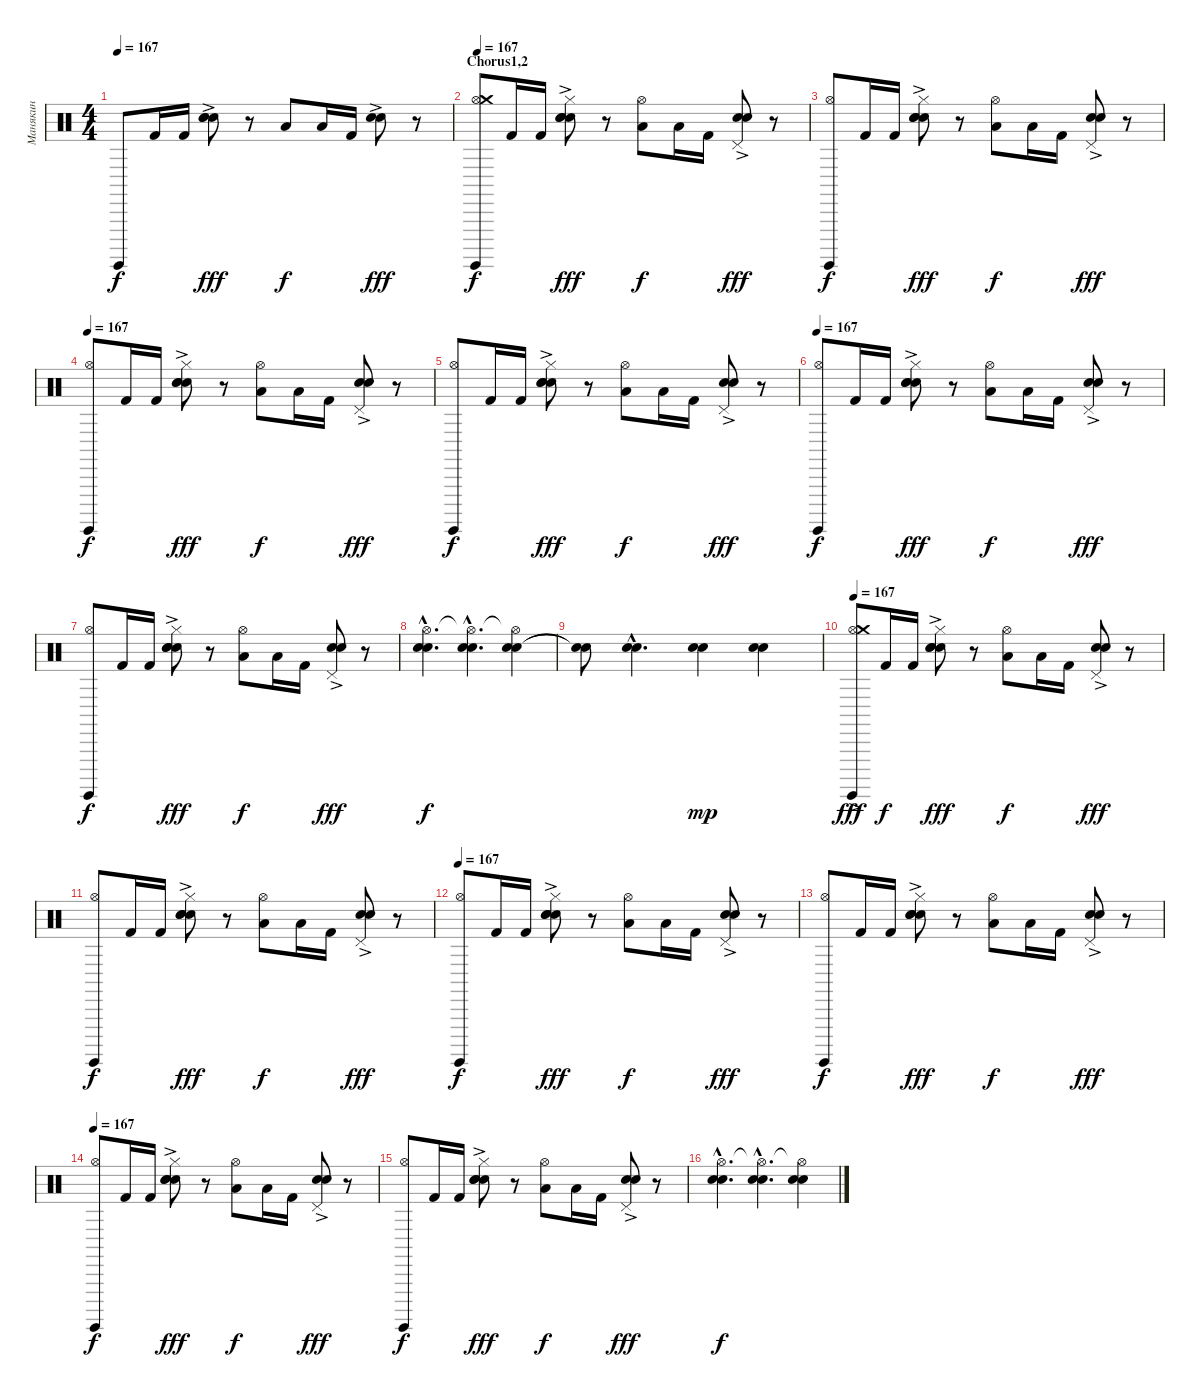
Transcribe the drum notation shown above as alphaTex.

\track ("Манякин" "Манякин") {instrument percussion}
\staff {score}
\articulation defaults
\ts (4 4)
\tempo 167
\clef neutral
\ks c "Surdo (hit)".8{dy f} "Kick (hit) 2".16 "Kick (hit) 2".16
("Electric Snare (hit)"{ac} "Snare (hit) 2" "Electric Snare (hit)").8{dy fff} r.8 "Low Tom (hit)".8{dy f} "Low Tom (hit)".16 "Kick (hit) 2".16 ("Electric Snare (hit)"{ac} "Snare (hit) 2").8{dy fff} r.8 |
\section ("" "Chorus1,2")
\tempo 167
("Surdo (hit)" "Hi-Hat (open)" "Crash medium (hit)").8{dy f volume 15} "Kick (hit) 2".16 "Kick (hit) 2".16 ("Hi-Hat (closed)" "Electric Snare (hit)"{ac} "Snare (hit) 2" "Electric Snare (hit)").8{dy fff} r.8 ("Low Tom (hit)" "Hi-Hat (open)").8{dy f} "Low Tom (hit)".16 "Kick (hit) 2".16 ("Electric Snare (hit)"{ac} "Snare (hit) 2" "Pedal Hi-Hat (hit)").8{dy fff} r.8 |
("Surdo (hit)" "Hi-Hat (open)").8{dy f} "Kick (hit) 2".16 "Kick (hit) 2".16 ("Hi-Hat (closed)" "Electric Snare (hit)"{ac} "Snare (hit) 2" "Electric Snare (hit)").8{dy fff} r.8 ("Low Tom (hit)" "Hi-Hat (open)").8{dy f} "Low Tom (hit)".16 "Kick (hit) 2".16 ("Electric Snare (hit)"{ac} "Snare (hit) 2" "Pedal Hi-Hat (hit)").8{dy fff} r.8 |
\tempo 167
("Surdo (hit)" "Hi-Hat (open)").8{dy f} "Kick (hit) 2".16 "Kick (hit) 2".16 ("Hi-Hat (closed)" "Electric Snare (hit)"{ac} "Snare (hit) 2" "Electric Snare (hit)").8{dy fff} r.8 ("Low Tom (hit)" "Hi-Hat (open)").8{dy f} "Low Tom (hit)".16 "Kick (hit) 2".16 ("Electric Snare (hit)"{ac} "Snare (hit) 2" "Pedal Hi-Hat (hit)").8{dy fff} r.8 |
("Surdo (hit)" "Hi-Hat (open)").8{dy f} "Kick (hit) 2".16 "Kick (hit) 2".16 ("Hi-Hat (closed)" "Electric Snare (hit)"{ac} "Snare (hit) 2" "Electric Snare (hit)").8{dy fff} r.8 ("Low Tom (hit)" "Hi-Hat (open)").8{dy f} "Low Tom (hit)".16 "Kick (hit) 2".16 ("Electric Snare (hit)"{ac} "Snare (hit) 2" "Pedal Hi-Hat (hit)").8{dy fff} r.8 |
\tempo 167
("Surdo (hit)" "Hi-Hat (open)").8{dy f} "Kick (hit) 2".16 "Kick (hit) 2".16 ("Hi-Hat (closed)" "Electric Snare (hit)"{ac} "Snare (hit) 2" "Electric Snare (hit)").8{dy fff} r.8 ("Low Tom (hit)" "Hi-Hat (open)").8{dy f} "Low Tom (hit)".16 "Kick (hit) 2".16 ("Electric Snare (hit)"{ac} "Snare (hit) 2" "Pedal Hi-Hat (hit)").8{dy fff} r.8 |
("Surdo (hit)" "Hi-Hat (open)").8{dy f} "Kick (hit) 2".16 "Kick (hit) 2".16 ("Hi-Hat (closed)" "Electric Snare (hit)"{ac} "Snare (hit) 2" "Electric Snare (hit)").8{dy fff} r.8 ("Low Tom (hit)" "Hi-Hat (open)").8{dy f} "Low Tom (hit)".16 "Kick (hit) 2".16 ("Electric Snare (hit)"{ac} "Snare (hit) 2" "Pedal Hi-Hat (hit)").8{dy fff} r.8 |
("Electric Snare (hit)"{hac} "Snare (hit) 2"{hac} "Hi-Hat (open)"{hac}).4{d dy f} ("Electric Snare (hit)"{hac} "Snare (hit) 2"{hac} "Hi-Hat (open)"{hac t}).4{d} ("Electric Snare (hit)" "Snare (hit) 2" "Hi-Hat (open)"{t}).4 |
("Snare (hit)"{t} "Snare (hit)"{t}).8 ("Electric Snare (hit)"{hac} "Snare (hit) 2"{hac}).4{d} ("Electric Snare (hit)" "Snare (hit) 2").4{dy mp} ("Snare (hit) 2" "Electric Snare (hit)").4 |
\tempo 167
("Surdo (hit)" "Hi-Hat (open)" "Crash medium (hit)"{ac}).8{dy fff volume 15} "Kick (hit) 2".16{dy f} "Kick (hit) 2".16 ("Hi-Hat (closed)" "Electric Snare (hit)"{ac} "Snare (hit) 2" "Electric Snare (hit)").8{dy fff} r.8 ("Low Tom (hit)" "Hi-Hat (open)").8{dy f} "Low Tom (hit)".16 "Kick (hit) 2".16 ("Electric Snare (hit)"{ac} "Snare (hit) 2" "Pedal Hi-Hat (hit)").8{dy fff} r.8 |
("Surdo (hit)" "Hi-Hat (open)").8{dy f} "Kick (hit) 2".16 "Kick (hit) 2".16 ("Hi-Hat (closed)" "Electric Snare (hit)"{ac} "Snare (hit) 2" "Electric Snare (hit)").8{dy fff} r.8 ("Low Tom (hit)" "Hi-Hat (open)").8{dy f} "Low Tom (hit)".16 "Kick (hit) 2".16 ("Electric Snare (hit)"{ac} "Snare (hit) 2" "Pedal Hi-Hat (hit)").8{dy fff} r.8 |
\tempo 167
("Surdo (hit)" "Hi-Hat (open)").8{dy f} "Kick (hit) 2".16 "Kick (hit) 2".16 ("Hi-Hat (closed)" "Electric Snare (hit)"{ac} "Snare (hit) 2" "Electric Snare (hit)").8{dy fff} r.8 ("Low Tom (hit)" "Hi-Hat (open)").8{dy f} "Low Tom (hit)".16 "Kick (hit) 2".16 ("Electric Snare (hit)"{ac} "Snare (hit) 2" "Pedal Hi-Hat (hit)").8{dy fff} r.8 |
("Surdo (hit)" "Hi-Hat (open)").8{dy f} "Kick (hit) 2".16 "Kick (hit) 2".16 ("Hi-Hat (closed)" "Electric Snare (hit)"{ac} "Snare (hit) 2" "Electric Snare (hit)").8{dy fff} r.8 ("Low Tom (hit)" "Hi-Hat (open)").8{dy f} "Low Tom (hit)".16 "Kick (hit) 2".16 ("Electric Snare (hit)"{ac} "Snare (hit) 2" "Pedal Hi-Hat (hit)").8{dy fff} r.8 |
\tempo 167
("Surdo (hit)" "Hi-Hat (open)").8{dy f} "Kick (hit) 2".16 "Kick (hit) 2".16 ("Hi-Hat (closed)" "Electric Snare (hit)"{ac} "Snare (hit) 2" "Electric Snare (hit)").8{dy fff} r.8 ("Low Tom (hit)" "Hi-Hat (open)").8{dy f} "Low Tom (hit)".16 "Kick (hit) 2".16 ("Electric Snare (hit)"{ac} "Snare (hit) 2" "Pedal Hi-Hat (hit)").8{dy fff} r.8 |
("Surdo (hit)" "Hi-Hat (open)").8{dy f} "Kick (hit) 2".16 "Kick (hit) 2".16 ("Hi-Hat (closed)" "Electric Snare (hit)"{ac} "Snare (hit) 2" "Electric Snare (hit)").8{dy fff} r.8 ("Low Tom (hit)" "Hi-Hat (open)").8{dy f} "Low Tom (hit)".16 "Kick (hit) 2".16 ("Electric Snare (hit)"{ac} "Snare (hit) 2" "Pedal Hi-Hat (hit)").8{dy fff} r.8 |
("Electric Snare (hit)"{hac} "Snare (hit) 2"{hac} "Hi-Hat (open)"{hac}).4{d dy f} ("Electric Snare (hit)"{hac} "Snare (hit) 2"{hac} "Hi-Hat (open)"{hac t}).4{d} ("Electric Snare (hit)" "Snare (hit) 2" "Hi-Hat (open)"{t}).4
